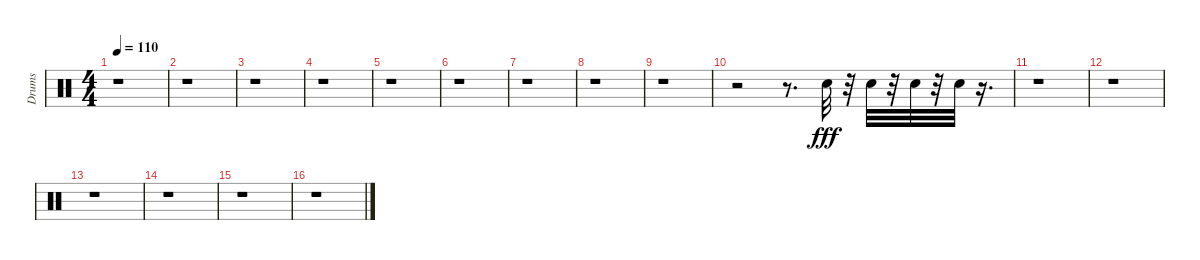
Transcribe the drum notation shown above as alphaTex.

\track ("Drums" "Drums") {instrument percussion}
\staff {score}
\articulation defaults
\ts (4 4)
\tempo 110
\clef neutral
\ks c
r.1{dy fff} |
r.1 |
r.1 |
r.1 |
r.1 |
r.1 |
r.1 |
r.1 |
r.1 |
r.2 r.8{d} "Electric Snare (hit)".32 r.32 "Electric Snare (hit)".32 r.32 "Electric Snare (hit)".32 r.32 "Electric Snare (hit)".32 r.16{d} |
r.1 |
r.1 |
r.1 |
r.1 |
r.1 |
r.1
